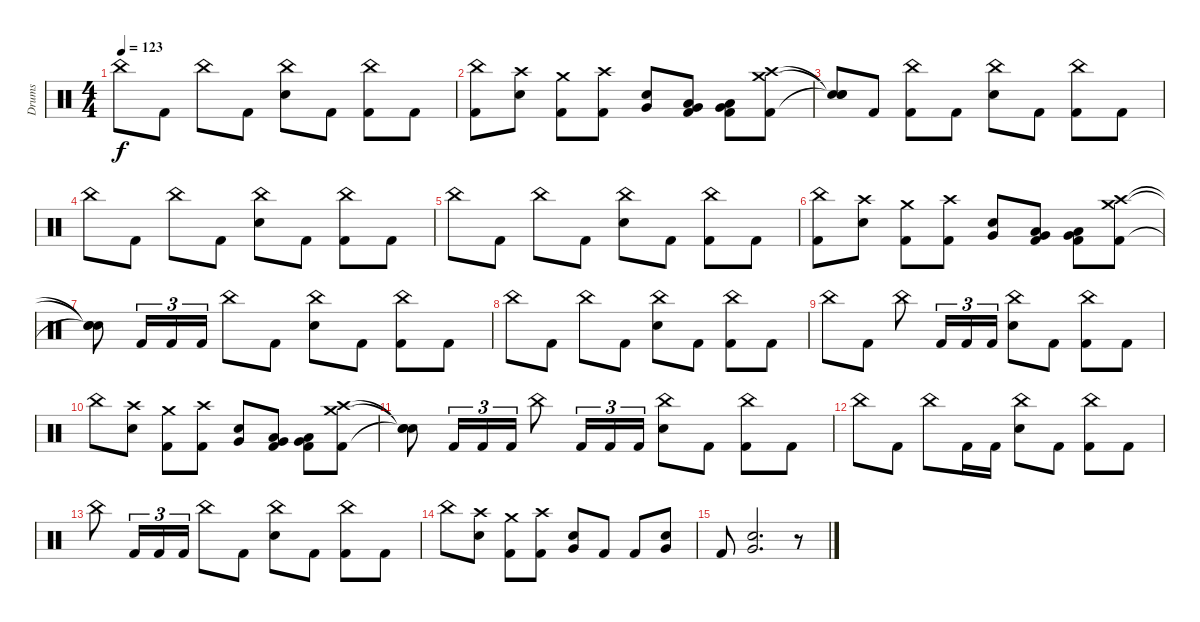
\track ("Drums" "Drums") {instrument percussion}
\staff {score}
\articulation defaults
\ts (4 4)
\tempo 123
\clef neutral
\ks c "China (hit)".8{dy f} "Kick (hit) 2".8 "China (hit)".8 "Kick (hit) 2".8
("China (hit)" "Electric Snare (hit)").8 "Kick (hit) 2".8 ("China (hit)" "Kick (hit) 2").8 "Kick (hit) 2".8 |
("China (hit)" "Kick (hit) 2").8 ("Crash high (hit)" "Electric Snare (hit)").8 ("Crash medium (hit)" "Kick (hit) 2").8 ("Crash high (hit)" "Kick (hit) 2").8 ("Very Low Tom (hit)" "Electric Snare (hit)").8 ("Very Low Tom (hit)" "Low Tom (hit)" "Kick (hit) 2").8 ("Very Low Tom (hit)" "Low Tom (hit)" "Kick (hit) 2").8 ("Crash high (hit)" "Crash medium (hit)" "Kick (hit) 2").8 |
("Snare (hit)"{t} "Snare (hit)"{t} "Snare (hit)"{t}).8 "Kick (hit) 2".8 ("China (hit)" "Kick (hit) 2").8 "Kick (hit) 2".8 ("China (hit)" "Electric Snare (hit)").8 "Kick (hit) 2".8 ("China (hit)" "Kick (hit) 2").8 "Kick (hit) 2".8 |
"China (hit)".8 "Kick (hit) 2".8 "China (hit)".8 "Kick (hit) 2".8 ("China (hit)" "Electric Snare (hit)").8 "Kick (hit) 2".8 ("China (hit)" "Kick (hit) 2").8 "Kick (hit) 2".8 |
"China (hit)".8 "Kick (hit) 2".8 "China (hit)".8 "Kick (hit) 2".8 ("China (hit)" "Electric Snare (hit)").8 "Kick (hit) 2".8 ("China (hit)" "Kick (hit) 2").8 "Kick (hit) 2".8 |
("China (hit)" "Kick (hit) 2").8 ("Crash high (hit)" "Electric Snare (hit)").8 ("Crash medium (hit)" "Kick (hit) 2").8 ("Crash high (hit)" "Kick (hit) 2").8 ("Very Low Tom (hit)" "Electric Snare (hit)").8 ("Very Low Tom (hit)" "Low Tom (hit)" "Kick (hit) 2").8 ("Very Low Tom (hit)" "Low Tom (hit)" "Kick (hit) 2").8 ("Crash high (hit)" "Crash medium (hit)" "Kick (hit) 2").8 |
("Snare (hit)"{t} "Snare (hit)"{t} "Snare (hit)"{t}).8 "Kick (hit) 2".16{tu (3 2)} "Kick (hit) 2".16{tu (3 2)} "Kick (hit) 2".16{tu (3 2)} "China (hit)".8 "Kick (hit) 2".8 ("China (hit)" "Electric Snare (hit)").8 "Kick (hit) 2".8 ("China (hit)" "Kick (hit) 2").8 "Kick (hit) 2".8 |
"China (hit)".8 "Kick (hit) 2".8 "China (hit)".8 "Kick (hit) 2".8 ("China (hit)" "Electric Snare (hit)").8 "Kick (hit) 2".8 ("China (hit)" "Kick (hit) 2").8 "Kick (hit) 2".8 |
"China (hit)".8 "Kick (hit) 2".8 "China (hit)".8 "Kick (hit) 2".16{tu (3 2)} "Kick (hit) 2".16{tu (3 2)} "Kick (hit) 2".16{tu (3 2)} ("China (hit)" "Electric Snare (hit)").8 "Kick (hit) 2".8 ("China (hit)" "Kick (hit) 2").8 "Kick (hit) 2".8 |
"China (hit)".8 ("Crash high (hit)" "Electric Snare (hit)").8 ("Crash medium (hit)" "Kick (hit) 2").8 ("Crash high (hit)" "Kick (hit) 2").8 ("Very Low Tom (hit)" "Electric Snare (hit)").8 ("Very Low Tom (hit)" "Low Tom (hit)" "Kick (hit) 2").8 ("Very Low Tom (hit)" "Low Tom (hit)" "Kick (hit) 2").8 ("Crash high (hit)" "Crash medium (hit)" "Kick (hit) 2").8 |
("Snare (hit)"{t} "Snare (hit)"{t} "Snare (hit)"{t}).8 "Kick (hit) 2".16{tu (3 2)} "Kick (hit) 2".16{tu (3 2)} "Kick (hit) 2".16{tu (3 2)} "China (hit)".8 "Kick (hit) 2".16{tu (3 2)} "Kick (hit) 2".16{tu (3 2)} "Kick (hit) 2".16{tu (3 2)} ("China (hit)" "Electric Snare (hit)").8 "Kick (hit) 2".8 ("China (hit)" "Kick (hit) 2").8 "Kick (hit) 2".8 |
"China (hit)".8 "Kick (hit) 2".8 "China (hit)".8 "Kick (hit) 2".16 "Kick (hit) 2".16 ("China (hit)" "Electric Snare (hit)").8 "Kick (hit) 2".8 ("China (hit)" "Kick (hit) 2").8 "Kick (hit) 2".8 |
"China (hit)".8 "Kick (hit) 2".16{tu (3 2)} "Kick (hit) 2".16{tu (3 2)} "Kick (hit) 2".16{tu (3 2)} "China (hit)".8 "Kick (hit) 2".8 ("China (hit)" "Electric Snare (hit)").8 "Kick (hit) 2".8 ("China (hit)" "Kick (hit) 2").8 "Kick (hit) 2".8 |
"China (hit)".8 ("Crash high (hit)" "Electric Snare (hit)").8 ("Crash medium (hit)" "Kick (hit) 2").8 ("Crash high (hit)" "Kick (hit) 2").8 ("Very Low Tom (hit)" "Electric Snare (hit)").8 "Kick (hit) 2".8 "Kick (hit) 2".8 ("Very Low Tom (hit)" "Electric Snare (hit)").8 |
"Kick (hit) 2".8 ("Very Low Tom (hit)" "Electric Snare (hit)").2{d} r.8
